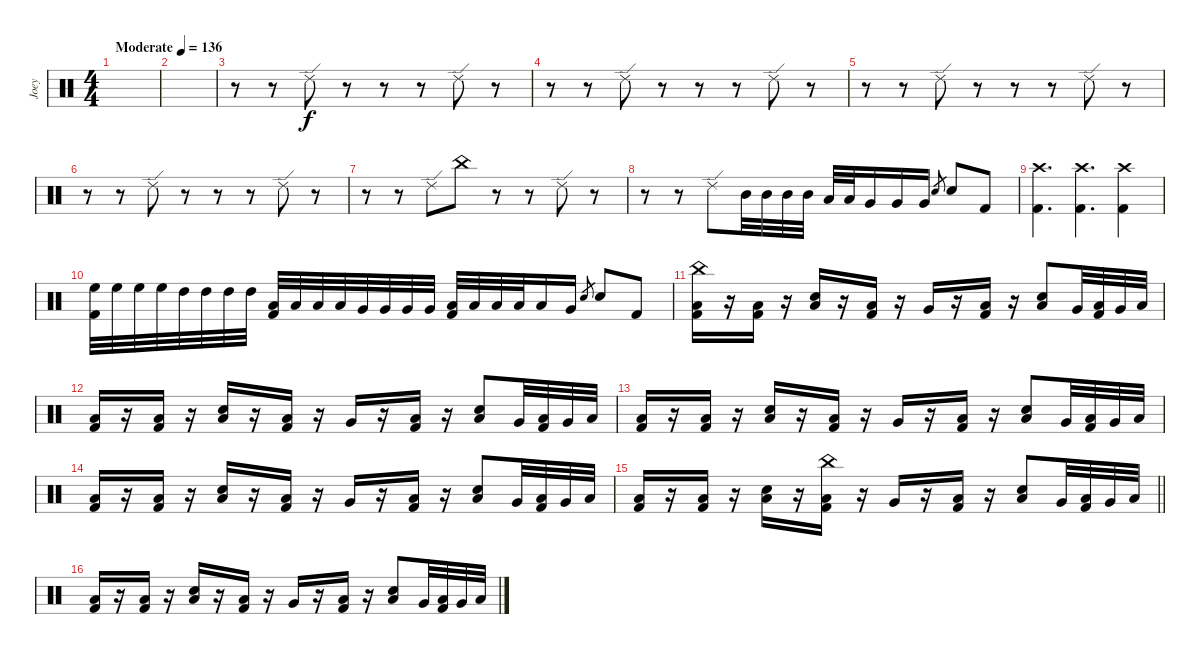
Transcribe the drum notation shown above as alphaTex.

\track ("Joey" "Joey") {instrument percussion}
\staff {score}
\articulation defaults
\ts (4 4)
\tempo (136 "Moderate")
\clef neutral
\ks c
|
|
r.8{balance 13} r.8 "Ride (edge) 2".8 r.8 r.8 r.8 "Ride (edge) 2".8 r.8 |
r.8 r.8 "Ride (edge) 2".8 r.8 r.8 r.8 "Ride (edge) 2".8 r.8 |
r.8 r.8 "Ride (edge) 2".8 r.8 r.8 r.8 "Ride (edge) 2".8 r.8 |
r.8 r.8 "Ride (edge) 2".8 r.8 r.8 r.8 "Ride (edge) 2".8 r.8 |
r.8 r.8 "Ride (edge) 2".8 "China (hit)".8 r.8 r.8 "Ride (edge) 2".8 r.8 |
r.8 r.8 "Ride (edge) 2".8 "Mid Tom (hit)".32{volume 14 balance 8} "Mid Tom (hit)".32 "Mid Tom (hit)".32 "Mid Tom (hit)".32 "Low Tom (hit)".32 "Low Tom (hit)".32 "Very Low Tom (hit)".16 "Very Low Tom (hit)".16 "Very Low Tom (hit)".16 "Snare (hit) 2".8{gr} "Snare (hit) 2".8 "Kick (hit) 2".8 |
("Crash high (hit)" "Kick (hit) 2").4{d} ("Crash high (hit)" "Kick (hit) 2").4{d} ("Crash high (hit)" "Kick (hit) 2").4 |
("High Floor Tom (hit)" "Kick (hit) 2").32 "High Floor Tom (hit)".32 "High Floor Tom (hit)".32 "High Floor Tom (hit)".32 "High Tom (hit)".32 "High Tom (hit)".32 "High Tom (hit)".32 "High Tom (hit)".32 ("Low Tom (hit)" "Kick (hit) 2").32 "Low Tom (hit)".32 "Low Tom (hit)".32 "Low Tom (hit)".32 "Very Low Tom (hit)".32 "Very Low Tom (hit)".32 "Very Low Tom (hit)".32 "Very Low Tom (hit)".32 ("Low Floor Tom (hit)" "Kick (hit) 2").32 "Low Floor Tom (hit)".32 "Low Floor Tom (hit)".32 "Low Floor Tom (hit)".32 "Low Floor Tom (hit)".16 "Very Low Tom (hit)".16 "Snare (hit) 2".8{gr} "Snare (hit) 2".8 "Kick (hit) 2".8 |
("China (hit)" "Low Floor Tom (hit)" "Kick (hit) 2").16 r.16 ("Low Floor Tom (hit)" "Kick (hit) 2").16 r.16 ("Low Floor Tom (hit)" "Snare (hit) 2").16 r.16 ("Low Floor Tom (hit)" "Kick (hit) 2").16 r.16 "Very Low Tom (hit)".16 r.16 ("Low Floor Tom (hit)" "Kick (hit) 2").16 r.16 ("Low Floor Tom (hit)" "Snare (hit) 2").8 "Very Low Tom (hit)".32 ("Low Floor Tom (hit)" "Kick (hit) 2").32 "Very Low Tom (hit)".32 "Low Floor Tom (hit)".32 |
("Low Floor Tom (hit)" "Kick (hit) 2").16 r.16 ("Low Floor Tom (hit)" "Kick (hit) 2").16 r.16 ("Low Floor Tom (hit)" "Snare (hit) 2").16 r.16 ("Low Floor Tom (hit)" "Kick (hit) 2").16 r.16 "Very Low Tom (hit)".16 r.16 ("Low Floor Tom (hit)" "Kick (hit) 2").16 r.16 ("Low Floor Tom (hit)" "Snare (hit) 2").8 "Very Low Tom (hit)".32 ("Low Floor Tom (hit)" "Kick (hit) 2").32 "Very Low Tom (hit)".32 "Low Floor Tom (hit)".32 |
("Low Floor Tom (hit)" "Kick (hit) 2").16 r.16 ("Low Floor Tom (hit)" "Kick (hit) 2").16 r.16 ("Low Floor Tom (hit)" "Snare (hit) 2").16 r.16 ("Low Floor Tom (hit)" "Kick (hit) 2").16 r.16 "Very Low Tom (hit)".16 r.16 ("Low Floor Tom (hit)" "Kick (hit) 2").16 r.16 ("Low Floor Tom (hit)" "Snare (hit) 2").8 "Very Low Tom (hit)".32 ("Low Floor Tom (hit)" "Kick (hit) 2").32 "Very Low Tom (hit)".32 "Low Floor Tom (hit)".32 |
("Low Floor Tom (hit)" "Kick (hit) 2").16 r.16 ("Low Floor Tom (hit)" "Kick (hit) 2").16 r.16 ("Low Floor Tom (hit)" "Snare (hit) 2").16 r.16 ("Low Floor Tom (hit)" "Kick (hit) 2").16 r.16 "Very Low Tom (hit)".16 r.16 ("Low Floor Tom (hit)" "Kick (hit) 2").16 r.16 ("Low Floor Tom (hit)" "Snare (hit) 2").8 "Very Low Tom (hit)".32 ("Low Floor Tom (hit)" "Kick (hit) 2").32 "Very Low Tom (hit)".32 "Low Floor Tom (hit)".32 |
\barLineRight lightlight
("Low Floor Tom (hit)" "Kick (hit) 2").16 r.16 ("Low Floor Tom (hit)" "Kick (hit) 2").16 r.16 ("Low Floor Tom (hit)" "Snare (hit) 2").16 r.16 ("China (hit)" "Low Floor Tom (hit)" "Kick (hit) 2").16 r.16 "Very Low Tom (hit)".16 r.16 ("Low Floor Tom (hit)" "Kick (hit) 2").16 r.16 ("Low Floor Tom (hit)" "Snare (hit) 2").8 "Very Low Tom (hit)".32 ("Low Floor Tom (hit)" "Kick (hit) 2").32 "Very Low Tom (hit)".32 "Low Floor Tom (hit)".32 |
("Low Floor Tom (hit)" "Kick (hit) 2").16 r.16 ("Low Floor Tom (hit)" "Kick (hit) 2").16 r.16 ("Low Floor Tom (hit)" "Snare (hit) 2").16 r.16 ("Low Floor Tom (hit)" "Kick (hit) 2").16 r.16 "Very Low Tom (hit)".16 r.16 ("Low Floor Tom (hit)" "Kick (hit) 2").16 r.16 ("Low Floor Tom (hit)" "Snare (hit) 2").8 "Very Low Tom (hit)".32 ("Low Floor Tom (hit)" "Kick (hit) 2").32 "Very Low Tom (hit)".32 "Low Floor Tom (hit)".32
